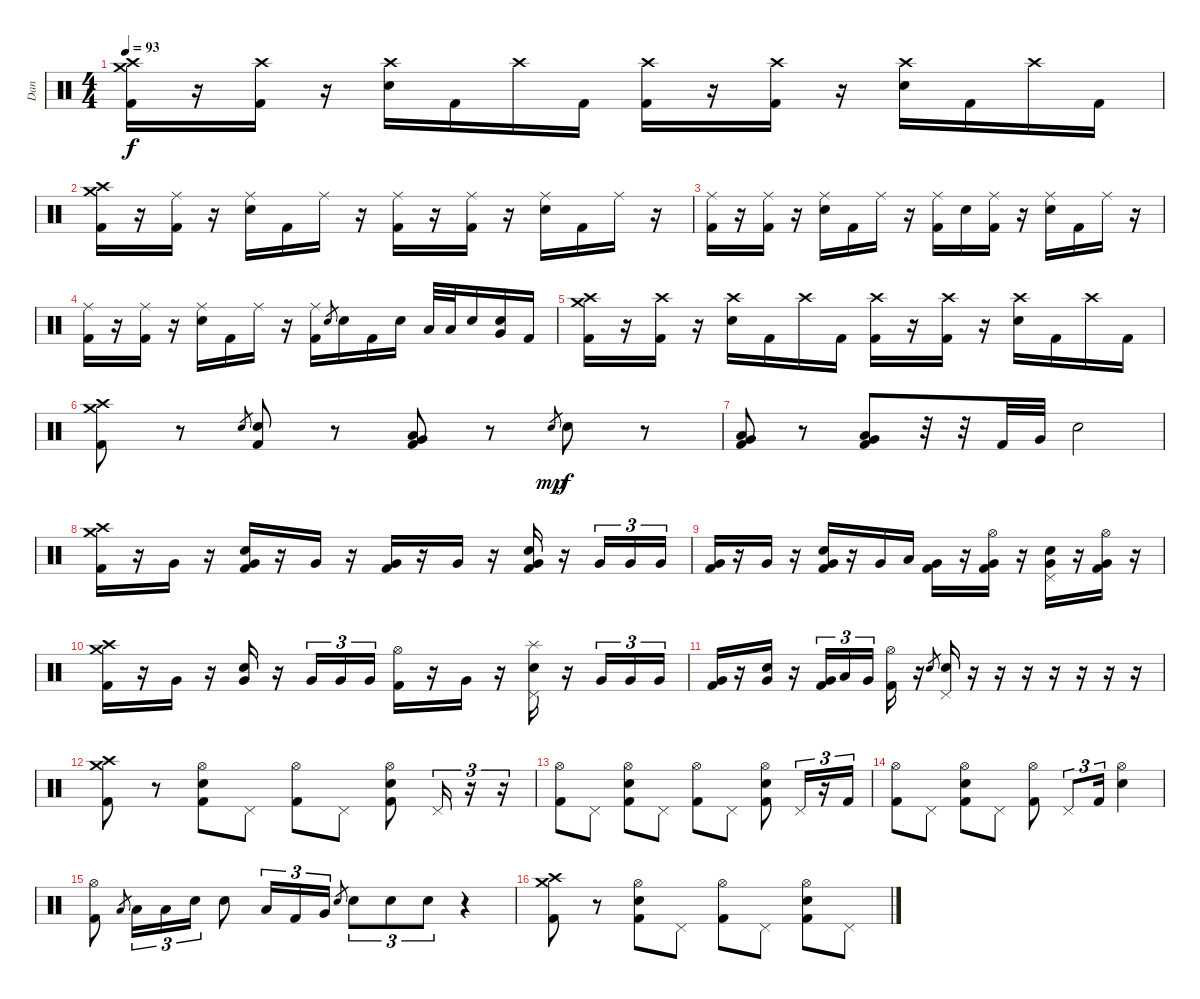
\track ("Dan" "Dan") {instrument percussion}
\staff {score}
\articulation defaults
\ts (4 4)
\tempo 93
\clef neutral
\ks c
("Crash high (hit)" "Crash medium (hit)" "Kick (hit) 2").16{dy f} r.16 ("Crash high (hit)" "Kick (hit) 2").16 r.16 ("Crash high (hit)" "Electric Snare (hit)").16 "Kick (hit) 2".16 "Crash high (hit)".16 "Kick (hit) 2".16 ("Crash high (hit)" "Kick (hit) 2").16 r.16 ("Crash high (hit)" "Kick (hit) 2").16 r.16 ("Crash high (hit)" "Electric Snare (hit)").16 "Kick (hit) 2".16 "Crash high (hit)".16 "Kick (hit) 2".16 |
("Crash high (hit)" "Crash medium (hit)" "Kick (hit) 2").16 r.16 ("Ride (middle)" "Kick (hit) 2").16 r.16 ("Ride (middle)" "Electric Snare (hit)").16 "Kick (hit) 2".16 "Ride (middle)".16 r.16 ("Ride (middle)" "Kick (hit) 2").16 r.16 ("Ride (middle)" "Kick (hit) 2").16 r.16 ("Ride (middle)" "Electric Snare (hit)").16 "Kick (hit) 2".16 "Ride (middle)".16 r.16 |
("Ride (middle)" "Kick (hit) 2").16 r.16 ("Ride (middle)" "Kick (hit) 2").16 r.16 ("Ride (middle)" "Electric Snare (hit)").16 "Kick (hit) 2".16 "Ride (middle)".16 r.16 ("Ride (middle)" "Kick (hit) 2").16 "Electric Snare (hit)".16 ("Ride (middle)" "Kick (hit) 2").16 r.16 ("Ride (middle)" "Electric Snare (hit)").16 "Kick (hit) 2".16 "Ride (middle)".16 r.16 |
("Ride (middle)" "Kick (hit) 2").16 r.16 ("Ride (middle)" "Kick (hit) 2").16 r.16 ("Ride (middle)" "Electric Snare (hit)").16 "Kick (hit) 2".16 "Ride (middle)".16 r.16 ("Ride (middle)" "Kick (hit) 2").16 "Electric Snare (hit)".8{gr} "Electric Snare (hit)".16 "Kick (hit) 2".16 "Electric Snare (hit)".16 "Low Tom (hit)".32 "Low Tom (hit)".32 "Electric Snare (hit)".16 ("Electric Snare (hit)" "Very Low Tom (hit)").16 "Kick (hit) 2".16 |
("Crash high (hit)" "Crash medium (hit)" "Kick (hit) 2").16 r.16 ("Crash high (hit)" "Kick (hit) 2").16 r.16 ("Crash high (hit)" "Electric Snare (hit)").16 "Kick (hit) 2".16 "Crash high (hit)".16 "Kick (hit) 2".16 ("Crash high (hit)" "Kick (hit) 2").16 r.16 ("Crash high (hit)" "Kick (hit) 2").16 r.16 ("Crash high (hit)" "Electric Snare (hit)").16 "Kick (hit) 2".16 "Crash high (hit)".16 "Kick (hit) 2".16 |
("Crash high (hit)" "Crash medium (hit)" "Kick (hit) 2").8 r.8 "Electric Snare (hit)".8{gr} ("Electric Snare (hit)" "Kick (hit) 2").8 r.8 ("Low Tom (hit)" "Very Low Tom (hit)" "Kick (hit) 2").8 r.8 "Electric Snare (hit)".8{gr dy mp} "Electric Snare (hit)".8{dy f} r.8 |
("Low Tom (hit)" "Very Low Tom (hit)" "Kick (hit) 2").8 r.8 ("Low Tom (hit)" "Very Low Tom (hit)" "Kick (hit) 2").8 r.32 r.32 "Kick (hit) 2".32 "Very Low Tom (hit)".32 "Electric Snare (hit)".2 |
("Crash high (hit)" "Crash medium (hit)" "Kick (hit) 2").16 r.16 "Very Low Tom (hit)".16 r.16 ("Electric Snare (hit)" "Very Low Tom (hit)" "Kick (hit) 2").16 r.16 "Very Low Tom (hit)".16 r.16 ("Very Low Tom (hit)" "Kick (hit) 2").16 r.16 "Very Low Tom (hit)".16 r.16 ("Electric Snare (hit)" "Very Low Tom (hit)" "Kick (hit) 2").16 r.16 "Very Low Tom (hit)".16{tu (3 2)} "Very Low Tom (hit)".16{tu (3 2)} "Very Low Tom (hit)".16{tu (3 2)} |
("Very Low Tom (hit)" "Kick (hit) 2").16 r.16 "Very Low Tom (hit)".16 r.16 ("Electric Snare (hit)" "Very Low Tom (hit)" "Kick (hit) 2").16 r.16 "Very Low Tom (hit)".16 "Low Tom (hit)".16 ("Very Low Tom (hit)" "Kick (hit) 2").16 r.16 ("Hi-Hat (open)" "Very Low Tom (hit)" "Kick (hit) 2").16 r.16 ("Pedal Hi-Hat (hit)" "Electric Snare (hit)" "Very Low Tom (hit)").16 r.16 ("Hi-Hat (open)" "Very Low Tom (hit)" "Kick (hit) 2").16 r.16 |
("Crash high (hit)" "Crash medium (hit)" "Kick (hit) 2").16 r.16 "Very Low Tom (hit)".16 r.16 ("Electric Snare (hit)" "Very Low Tom (hit)").16 r.16 "Very Low Tom (hit)".16{tu (3 2)} "Very Low Tom (hit)".16{tu (3 2)} "Very Low Tom (hit)".16{tu (3 2)} ("Hi-Hat (open)" "Kick (hit) 2").16 r.16 "Very Low Tom (hit)".16 r.16 ("Splash (hit)" "Pedal Hi-Hat (hit)" "Electric Snare (hit)").16 r.16 "Very Low Tom (hit)".16{tu (3 2)} "Very Low Tom (hit)".16{tu (3 2)} "Very Low Tom (hit)".16{tu (3 2)} |
("Very Low Tom (hit)" "Kick (hit) 2").16 r.16 ("Electric Snare (hit)" "Very Low Tom (hit)").16 r.16 ("Very Low Tom (hit)" "Kick (hit) 2").16{tu (3 2)} "Low Tom (hit)".16{tu (3 2)} "Very Low Tom (hit)".16{tu (3 2) beam splitsecondary} ("Hi-Hat (open)" "Kick (hit) 2").16 r.16 "Electric Snare (hit)".8{gr} ("Pedal Hi-Hat (hit)" "Electric Snare (hit)").16 r.16 r.16 r.16 r.16 r.16 r.16 r.16 |
("Crash high (hit)" "Crash medium (hit)" "Kick (hit) 2").8 r.8 ("Hi-Hat (open)" "Electric Snare (hit)" "Kick (hit) 2").8 "Pedal Hi-Hat (hit)".8 ("Hi-Hat (open)" "Kick (hit) 2").8 "Pedal Hi-Hat (hit)".8 ("Hi-Hat (open)" "Electric Snare (hit)" "Kick (hit) 2").8 "Pedal Hi-Hat (hit)".16{tu (3 2)} r.16{tu (3 2)} r.16{tu (3 2)} |
("Hi-Hat (open)" "Kick (hit) 2").8 "Pedal Hi-Hat (hit)".8 ("Hi-Hat (open)" "Electric Snare (hit)" "Kick (hit) 2").8 "Pedal Hi-Hat (hit)".8 ("Hi-Hat (open)" "Kick (hit) 2").8 "Pedal Hi-Hat (hit)".8 ("Hi-Hat (open)" "Electric Snare (hit)" "Kick (hit) 2").8 "Pedal Hi-Hat (hit)".16{tu (3 2)} r.16{tu (3 2)} "Kick (hit) 2".16{tu (3 2)} |
("Hi-Hat (open)" "Kick (hit) 2").8 "Pedal Hi-Hat (hit)".8 ("Hi-Hat (open)" "Electric Snare (hit)" "Kick (hit) 2").8 "Pedal Hi-Hat (hit)".8 ("Hi-Hat (open)" "Kick (hit) 2").8 "Pedal Hi-Hat (hit)".8{tu (3 2)} "Kick (hit) 2".16{tu (3 2)} ("Hi-Hat (open)" "Electric Snare (hit)").4 |
("Hi-Hat (open)" "Kick (hit) 2").8 "Low Tom (hit)".8{gr} "Low Tom (hit)".16{tu (3 2)} "Low Tom (hit)".16{tu (3 2)} "Electric Snare (hit)".16{tu (3 2)} "Electric Snare (hit)".8 "Low Tom (hit)".16{tu (3 2)} "Kick (hit) 2".16{tu (3 2)} "Very Low Tom (hit)".16{tu (3 2)} "Electric Snare (hit)".8{gr} "Electric Snare (hit)".8{tu (3 2)} "Electric Snare (hit)".8{tu (3 2)} "Electric Snare (hit)".8{tu (3 2)} r.4 |
("Crash high (hit)" "Crash medium (hit)" "Kick (hit) 2").8 r.8 ("Hi-Hat (open)" "Electric Snare (hit)" "Kick (hit) 2").8 "Pedal Hi-Hat (hit)".8 ("Hi-Hat (open)" "Kick (hit) 2").8 "Pedal Hi-Hat (hit)".8 ("Hi-Hat (open)" "Electric Snare (hit)" "Kick (hit) 2").8 "Pedal Hi-Hat (hit)".8
